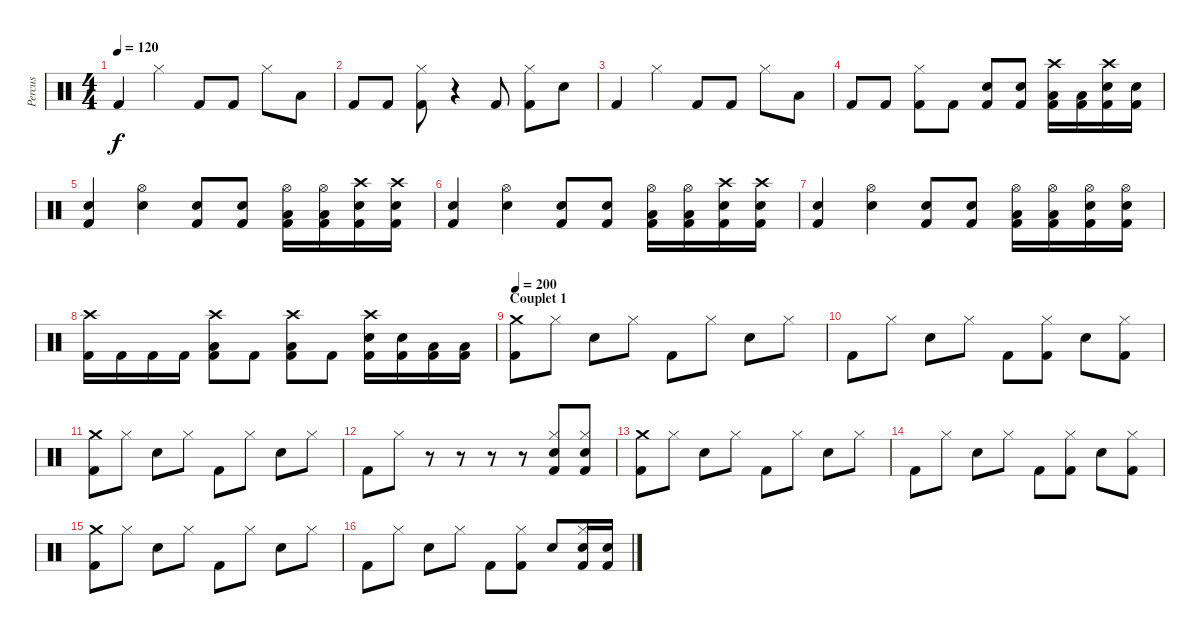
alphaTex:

\track ("Percus" "Percus") {instrument percussion}
\staff {score}
\articulation defaults
\ts (4 4)
\tempo 120
\clef neutral
\ks c "Kick (hit) 2".4{dy f} "Hi-Hat (closed)".4 "Kick (hit) 2".8 "Kick (hit) 2".8 "Hi-Hat (closed)".8 "Low Tom (hit)".8
|
"Kick (hit) 2".8 "Kick (hit) 2".8 ("Hi-Hat (closed)" "Kick (hit) 2").8 r.4 "Kick (hit) 2".8 ("Hi-Hat (closed)" "Kick (hit) 2").8 "Snare (hit) 2".8 |
"Kick (hit) 2".4 "Hi-Hat (closed)".4 "Kick (hit) 2".8 "Kick (hit) 2".8 "Hi-Hat (closed)".8 "Low Tom (hit)".8 |
"Kick (hit) 2".8 "Kick (hit) 2".8 ("Hi-Hat (closed)" "Kick (hit) 2").8 "Kick (hit) 2".8 ("Snare (hit) 2" "Kick (hit) 2").8 ("Snare (hit) 2" "Kick (hit) 2").8 ("Crash high (hit)" "Low Tom (hit)" "Kick (hit) 2").16 ("Low Tom (hit)" "Kick (hit) 2").16 ("Crash high (hit)" "Snare (hit) 2" "Kick (hit) 2").16 ("Snare (hit) 2" "Kick (hit) 2").16 |
("Snare (hit) 2" "Kick (hit) 2").4 ("Hi-Hat (open)" "Snare (hit) 2").4 ("Snare (hit) 2" "Kick (hit) 2").8 ("Snare (hit) 2" "Kick (hit) 2").8 ("Hi-Hat (open)" "Low Tom (hit)" "Kick (hit) 2").16 ("Hi-Hat (open)" "Low Tom (hit)" "Kick (hit) 2").16 ("Crash high (hit)" "Snare (hit) 2" "Kick (hit) 2").16 ("Crash high (hit)" "Snare (hit) 2" "Kick (hit) 2").16 |
("Snare (hit) 2" "Kick (hit) 2").4 ("Hi-Hat (open)" "Snare (hit) 2").4 ("Snare (hit) 2" "Kick (hit) 2").8 ("Snare (hit) 2" "Kick (hit) 2").8 ("Hi-Hat (open)" "Low Tom (hit)" "Kick (hit) 2").16 ("Hi-Hat (open)" "Low Tom (hit)" "Kick (hit) 2").16 ("Crash high (hit)" "Snare (hit) 2" "Kick (hit) 2").16 ("Crash high (hit)" "Snare (hit) 2" "Kick (hit) 2").16 |
("Snare (hit) 2" "Kick (hit) 2").4 ("Hi-Hat (open)" "Snare (hit) 2").4 ("Snare (hit) 2" "Kick (hit) 2").8 ("Snare (hit) 2" "Kick (hit) 2").8 ("Hi-Hat (open)" "Low Tom (hit)" "Kick (hit) 2").16 ("Hi-Hat (open)" "Low Tom (hit)" "Kick (hit) 2").16 ("Hi-Hat (open)" "Snare (hit) 2" "Kick (hit) 2").16 ("Hi-Hat (open)" "Snare (hit) 2" "Kick (hit) 2").16 |
("Crash high (hit)" "Kick (hit) 2").16 "Kick (hit) 2".16 "Kick (hit) 2".16 "Kick (hit) 2".16 ("Crash high (hit)" "Low Tom (hit)" "Kick (hit) 2").8 "Kick (hit) 2".8 ("Crash high (hit)" "Low Tom (hit)" "Kick (hit) 2").8 "Kick (hit) 2".8 ("Crash high (hit)" "Snare (hit) 2" "Kick (hit) 2").16 ("Snare (hit) 2" "Kick (hit) 2").16 ("Low Tom (hit)" "Kick (hit) 2").16 ("Low Tom (hit)" "Kick (hit) 2").16 |
\section ("" "Couplet 1")
\tempo 200
("Crash medium (hit)" "Kick (hit) 2").8 "Hi-Hat (closed)".8 "Snare (hit) 2".8 "Hi-Hat (closed)".8 "Kick (hit) 2".8 "Hi-Hat (closed)".8 "Snare (hit) 2".8 "Hi-Hat (closed)".8 |
"Kick (hit) 2".8 "Hi-Hat (closed)".8 "Snare (hit) 2".8 "Hi-Hat (closed)".8 "Kick (hit) 2".8 ("Hi-Hat (closed)" "Kick (hit) 2").8 "Snare (hit) 2".8 ("Hi-Hat (closed)" "Kick (hit) 2").8 |
("Crash medium (hit)" "Kick (hit) 2").8 "Hi-Hat (closed)".8 "Snare (hit) 2".8 "Hi-Hat (closed)".8 "Kick (hit) 2".8 "Hi-Hat (closed)".8 "Snare (hit) 2".8 "Hi-Hat (closed)".8 |
"Kick (hit) 2".8 "Hi-Hat (closed)".8 r.8 r.8 r.8 r.8 ("Hi-Hat (closed)" "Snare (hit) 2" "Kick (hit) 2").8 ("Hi-Hat (closed)" "Snare (hit) 2" "Kick (hit) 2").8 |
("Crash medium (hit)" "Kick (hit) 2").8 "Hi-Hat (closed)".8 "Snare (hit) 2".8 "Hi-Hat (closed)".8 "Kick (hit) 2".8 "Hi-Hat (closed)".8 "Snare (hit) 2".8 "Hi-Hat (closed)".8 |
"Kick (hit) 2".8 "Hi-Hat (closed)".8 "Snare (hit) 2".8 "Hi-Hat (closed)".8 "Kick (hit) 2".8 ("Hi-Hat (closed)" "Kick (hit) 2").8 "Snare (hit) 2".8 ("Hi-Hat (closed)" "Kick (hit) 2").8 |
("Crash medium (hit)" "Kick (hit) 2").8 "Hi-Hat (closed)".8 "Snare (hit) 2".8 "Hi-Hat (closed)".8 "Kick (hit) 2".8 "Hi-Hat (closed)".8 "Snare (hit) 2".8 "Hi-Hat (closed)".8 |
"Kick (hit) 2".8 "Hi-Hat (closed)".8 "Snare (hit) 2".8 "Hi-Hat (closed)".8 "Kick (hit) 2".8 ("Hi-Hat (closed)" "Kick (hit) 2").8 "Snare (hit) 2".8 ("Hi-Hat (closed)" "Snare (hit) 2" "Kick (hit) 2").16 ("Snare (hit) 2" "Kick (hit) 2").16
